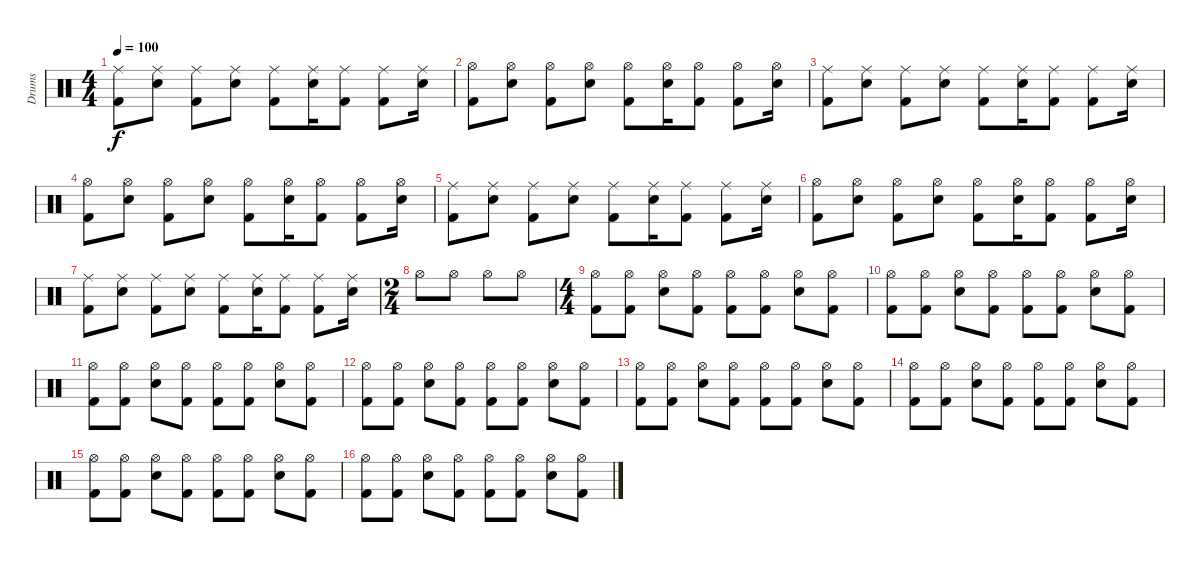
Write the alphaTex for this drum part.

\track ("Drums" "Drums") {instrument percussion}
\staff {score}
\articulation defaults
\ts (4 4)
\tempo 100
\clef neutral
\ks c
("Ride (middle)" "Kick (hit) 2").8{dy f} ("Ride (middle)" "Snare (hit) 2").8 ("Ride (middle)" "Kick (hit) 2").8 ("Ride (middle)" "Snare (hit) 2").8 ("Ride (middle)" "Kick (hit) 2").8 ("Ride (middle)" "Snare (hit) 2").16 ("Ride (middle)" "Kick (hit) 2").8 ("Ride (middle)" "Kick (hit) 2").8 ("Ride (middle)" "Snare (hit) 2").16 |
("Hi-Hat (open)" "Kick (hit) 2").8 ("Hi-Hat (open)" "Snare (hit) 2").8 ("Hi-Hat (open)" "Kick (hit) 2").8 ("Hi-Hat (open)" "Snare (hit) 2").8 ("Hi-Hat (open)" "Kick (hit) 2").8 ("Hi-Hat (open)" "Snare (hit) 2").16 ("Hi-Hat (open)" "Kick (hit) 2").8 ("Hi-Hat (open)" "Kick (hit) 2").8 ("Hi-Hat (open)" "Snare (hit) 2").16 |
("Ride (middle)" "Kick (hit) 2").8 ("Ride (middle)" "Snare (hit) 2").8 ("Ride (middle)" "Kick (hit) 2").8 ("Ride (middle)" "Snare (hit) 2").8 ("Ride (middle)" "Kick (hit) 2").8 ("Ride (middle)" "Snare (hit) 2").16 ("Ride (middle)" "Kick (hit) 2").8 ("Ride (middle)" "Kick (hit) 2").8 ("Ride (middle)" "Snare (hit) 2").16 |
("Hi-Hat (open)" "Kick (hit) 2").8 ("Hi-Hat (open)" "Snare (hit) 2").8 ("Hi-Hat (open)" "Kick (hit) 2").8 ("Hi-Hat (open)" "Snare (hit) 2").8 ("Hi-Hat (open)" "Kick (hit) 2").8 ("Hi-Hat (open)" "Snare (hit) 2").16 ("Hi-Hat (open)" "Kick (hit) 2").8 ("Hi-Hat (open)" "Kick (hit) 2").8 ("Hi-Hat (open)" "Snare (hit) 2").16 |
("Ride (middle)" "Kick (hit) 2").8 ("Ride (middle)" "Snare (hit) 2").8 ("Ride (middle)" "Kick (hit) 2").8 ("Ride (middle)" "Snare (hit) 2").8 ("Ride (middle)" "Kick (hit) 2").8 ("Ride (middle)" "Snare (hit) 2").16 ("Ride (middle)" "Kick (hit) 2").8 ("Ride (middle)" "Kick (hit) 2").8 ("Ride (middle)" "Snare (hit) 2").16 |
("Hi-Hat (open)" "Kick (hit) 2").8 ("Hi-Hat (open)" "Snare (hit) 2").8 ("Hi-Hat (open)" "Kick (hit) 2").8 ("Hi-Hat (open)" "Snare (hit) 2").8 ("Hi-Hat (open)" "Kick (hit) 2").8 ("Hi-Hat (open)" "Snare (hit) 2").16 ("Hi-Hat (open)" "Kick (hit) 2").8 ("Hi-Hat (open)" "Kick (hit) 2").8 ("Hi-Hat (open)" "Snare (hit) 2").16 |
("Ride (middle)" "Kick (hit) 2").8 ("Ride (middle)" "Snare (hit) 2").8 ("Ride (middle)" "Kick (hit) 2").8 ("Ride (middle)" "Snare (hit) 2").8 ("Ride (middle)" "Kick (hit) 2").8 ("Ride (middle)" "Snare (hit) 2").16 ("Ride (middle)" "Kick (hit) 2").8 ("Ride (middle)" "Kick (hit) 2").8 ("Ride (middle)" "Snare (hit) 2").16 |
\ts (2 4)
"Hi-Hat (open)".8 "Hi-Hat (open)".8 "Hi-Hat (open)".8 "Hi-Hat (open)".8 |
\ts (4 4)
("Hi-Hat (open)" "Kick (hit) 2").8 ("Hi-Hat (open)" "Kick (hit) 2").8 ("Hi-Hat (open)" "Snare (hit) 2").8 ("Hi-Hat (open)" "Kick (hit) 2").8 ("Hi-Hat (open)" "Kick (hit) 2").8 ("Hi-Hat (open)" "Kick (hit) 2").8 ("Hi-Hat (open)" "Snare (hit) 2").8 ("Hi-Hat (open)" "Kick (hit) 2").8 |
("Hi-Hat (open)" "Kick (hit) 2").8 ("Hi-Hat (open)" "Kick (hit) 2").8 ("Hi-Hat (open)" "Snare (hit) 2").8 ("Hi-Hat (open)" "Kick (hit) 2").8 ("Hi-Hat (open)" "Kick (hit) 2").8 ("Hi-Hat (open)" "Kick (hit) 2").8 ("Hi-Hat (open)" "Snare (hit) 2").8 ("Hi-Hat (open)" "Kick (hit) 2").8 |
("Hi-Hat (open)" "Kick (hit) 2").8 ("Hi-Hat (open)" "Kick (hit) 2").8 ("Hi-Hat (open)" "Snare (hit) 2").8 ("Hi-Hat (open)" "Kick (hit) 2").8 ("Hi-Hat (open)" "Kick (hit) 2").8 ("Hi-Hat (open)" "Kick (hit) 2").8 ("Hi-Hat (open)" "Snare (hit) 2").8 ("Hi-Hat (open)" "Kick (hit) 2").8 |
("Hi-Hat (open)" "Kick (hit) 2").8 ("Hi-Hat (open)" "Kick (hit) 2").8 ("Hi-Hat (open)" "Snare (hit) 2").8 ("Hi-Hat (open)" "Kick (hit) 2").8 ("Hi-Hat (open)" "Kick (hit) 2").8 ("Hi-Hat (open)" "Kick (hit) 2").8 ("Hi-Hat (open)" "Snare (hit) 2").8 ("Hi-Hat (open)" "Kick (hit) 2").8 |
("Hi-Hat (open)" "Kick (hit) 2").8 ("Hi-Hat (open)" "Kick (hit) 2").8 ("Hi-Hat (open)" "Snare (hit) 2").8 ("Hi-Hat (open)" "Kick (hit) 2").8 ("Hi-Hat (open)" "Kick (hit) 2").8 ("Hi-Hat (open)" "Kick (hit) 2").8 ("Hi-Hat (open)" "Snare (hit) 2").8 ("Hi-Hat (open)" "Kick (hit) 2").8 |
("Hi-Hat (open)" "Kick (hit) 2").8 ("Hi-Hat (open)" "Kick (hit) 2").8 ("Hi-Hat (open)" "Snare (hit) 2").8 ("Hi-Hat (open)" "Kick (hit) 2").8 ("Hi-Hat (open)" "Kick (hit) 2").8 ("Hi-Hat (open)" "Kick (hit) 2").8 ("Hi-Hat (open)" "Snare (hit) 2").8 ("Hi-Hat (open)" "Kick (hit) 2").8 |
("Hi-Hat (open)" "Kick (hit) 2").8 ("Hi-Hat (open)" "Kick (hit) 2").8 ("Hi-Hat (open)" "Snare (hit) 2").8 ("Hi-Hat (open)" "Kick (hit) 2").8 ("Hi-Hat (open)" "Kick (hit) 2").8 ("Hi-Hat (open)" "Kick (hit) 2").8 ("Hi-Hat (open)" "Snare (hit) 2").8 ("Hi-Hat (open)" "Kick (hit) 2").8 |
("Hi-Hat (open)" "Kick (hit) 2").8 ("Hi-Hat (open)" "Kick (hit) 2").8 ("Hi-Hat (open)" "Snare (hit) 2").8 ("Hi-Hat (open)" "Kick (hit) 2").8 ("Hi-Hat (open)" "Kick (hit) 2").8 ("Hi-Hat (open)" "Kick (hit) 2").8 ("Hi-Hat (open)" "Snare (hit) 2").8 ("Hi-Hat (open)" "Kick (hit) 2").8
